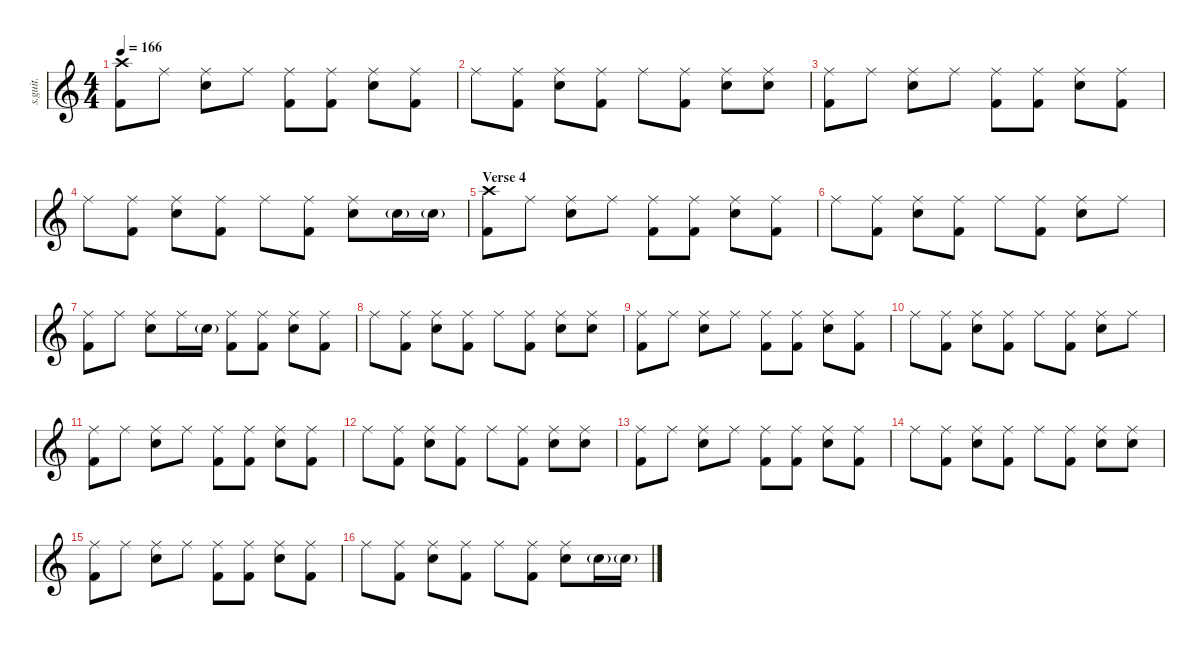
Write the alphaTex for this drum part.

\defaultSystemsLayout 4
\hideDynamics
\bracketExtendMode nobrackets
\track ("Phil Selway" "s.guit.") {instrument percussion}
\staff {score}
\articulation defaults
\ts (4 4)
\tempo 166
\clef g2
\ks c
("Crash high (hit)" "Kick (hit) 2").8{lyrics (0 "") lyrics (1 "") lyrics (2 "") lyrics (3 "") lyrics (4 "") dy f} "Ride (middle)".8{lyrics (0 "") lyrics (1 "") lyrics (2 "") lyrics (3 "") lyrics (4 "")} ("Ride (middle)" "Electric Snare (hit)").8{lyrics (0 "") lyrics (1 "") lyrics (2 "") lyrics (3 "") lyrics (4 "")} "Ride (middle)".8{lyrics (0 "") lyrics (1 "") lyrics (2 "") lyrics (3 "") lyrics (4 "")} ("Ride (middle)" "Kick (hit) 2").8{lyrics (0 "") lyrics (1 "") lyrics (2 "") lyrics (3 "") lyrics (4 "")} ("Ride (middle)" "Kick (hit) 2").8{lyrics (0 "") lyrics (1 "") lyrics (2 "") lyrics (3 "") lyrics (4 "")} ("Ride (middle)" "Electric Snare (hit)").8{lyrics (0 "") lyrics (1 "") lyrics (2 "") lyrics (3 "") lyrics (4 "")} ("Ride (middle)" "Kick (hit) 2").8{lyrics (0 "") lyrics (1 "") lyrics (2 "") lyrics (3 "") lyrics (4 "")} |
"Ride (middle)".8{lyrics (0 "") lyrics (1 "") lyrics (2 "") lyrics (3 "") lyrics (4 "")} ("Ride (middle)" "Kick (hit) 2").8{lyrics (0 "") lyrics (1 "") lyrics (2 "") lyrics (3 "") lyrics (4 "")} ("Ride (middle)" "Electric Snare (hit)").8{lyrics (0 "") lyrics (1 "") lyrics (2 "") lyrics (3 "") lyrics (4 "")} ("Ride (middle)" "Kick (hit) 2").8{lyrics (0 "") lyrics (1 "") lyrics (2 "") lyrics (3 "") lyrics (4 "")} "Ride (middle)".8{lyrics (0 "") lyrics (1 "") lyrics (2 "") lyrics (3 "") lyrics (4 "")} ("Ride (middle)" "Kick (hit) 2").8{lyrics (0 "") lyrics (1 "") lyrics (2 "") lyrics (3 "") lyrics (4 "")} ("Ride (middle)" "Electric Snare (hit)").8{lyrics (0 "") lyrics (1 "") lyrics (2 "") lyrics (3 "") lyrics (4 "")} ("Ride (middle)" "Electric Snare (hit)").8{lyrics (0 "") lyrics (1 "") lyrics (2 "") lyrics (3 "") lyrics (4 "")} |
("Ride (middle)" "Kick (hit) 2").8{lyrics (0 "") lyrics (1 "") lyrics (2 "") lyrics (3 "") lyrics (4 "")} "Ride (middle)".8{lyrics (0 "") lyrics (1 "") lyrics (2 "") lyrics (3 "") lyrics (4 "")} ("Ride (middle)" "Electric Snare (hit)").8{lyrics (0 "") lyrics (1 "") lyrics (2 "") lyrics (3 "") lyrics (4 "")} "Ride (middle)".8{lyrics (0 "") lyrics (1 "") lyrics (2 "") lyrics (3 "") lyrics (4 "")} ("Ride (middle)" "Kick (hit) 2").8{lyrics (0 "") lyrics (1 "") lyrics (2 "") lyrics (3 "") lyrics (4 "")} ("Ride (middle)" "Kick (hit) 2").8{lyrics (0 "") lyrics (1 "") lyrics (2 "") lyrics (3 "") lyrics (4 "")} ("Ride (middle)" "Electric Snare (hit)").8{lyrics (0 "") lyrics (1 "") lyrics (2 "") lyrics (3 "") lyrics (4 "")} ("Ride (middle)" "Kick (hit) 2").8{lyrics (0 "") lyrics (1 "") lyrics (2 "") lyrics (3 "") lyrics (4 "")} |
"Ride (middle)".8{lyrics (0 "") lyrics (1 "") lyrics (2 "") lyrics (3 "") lyrics (4 "")} ("Ride (middle)" "Kick (hit) 2").8{lyrics (0 "") lyrics (1 "") lyrics (2 "") lyrics (3 "") lyrics (4 "")} ("Ride (middle)" "Electric Snare (hit)").8{lyrics (0 "") lyrics (1 "") lyrics (2 "") lyrics (3 "") lyrics (4 "")} ("Ride (middle)" "Kick (hit) 2").8{lyrics (0 "") lyrics (1 "") lyrics (2 "") lyrics (3 "") lyrics (4 "")} "Ride (middle)".8{lyrics (0 "") lyrics (1 "") lyrics (2 "") lyrics (3 "") lyrics (4 "")} ("Ride (middle)" "Kick (hit) 2").8{lyrics (0 "") lyrics (1 "") lyrics (2 "") lyrics (3 "") lyrics (4 "")} ("Ride (middle)" "Electric Snare (hit)").8{lyrics (0 "") lyrics (1 "") lyrics (2 "") lyrics (3 "") lyrics (4 "")} "Electric Snare (hit)"{g}.16{lyrics (0 "") lyrics (1 "") lyrics (2 "") lyrics (3 "") lyrics (4 "")} "Electric Snare (hit)"{g}.16{lyrics (0 "") lyrics (1 "") lyrics (2 "") lyrics (3 "") lyrics (4 "")} |
\section ("" "Verse 4")
("Crash high (hit)" "Kick (hit) 2").8{lyrics (0 "") lyrics (1 "") lyrics (2 "") lyrics (3 "") lyrics (4 "")} "Ride (middle)".8{lyrics (0 "") lyrics (1 "") lyrics (2 "") lyrics (3 "") lyrics (4 "")} ("Ride (middle)" "Electric Snare (hit)").8{lyrics (0 "") lyrics (1 "") lyrics (2 "") lyrics (3 "") lyrics (4 "")} "Ride (middle)".8{lyrics (0 "") lyrics (1 "") lyrics (2 "") lyrics (3 "") lyrics (4 "")} ("Ride (middle)" "Kick (hit) 2").8{lyrics (0 "") lyrics (1 "") lyrics (2 "") lyrics (3 "") lyrics (4 "")} ("Ride (middle)" "Kick (hit) 2").8{lyrics (0 "") lyrics (1 "") lyrics (2 "") lyrics (3 "") lyrics (4 "")} ("Ride (middle)" "Electric Snare (hit)").8{lyrics (0 "") lyrics (1 "") lyrics (2 "") lyrics (3 "") lyrics (4 "")} ("Ride (middle)" "Kick (hit) 2").8{lyrics (0 "") lyrics (1 "") lyrics (2 "") lyrics (3 "") lyrics (4 "")} |
"Ride (middle)".8{lyrics (0 "") lyrics (1 "") lyrics (2 "") lyrics (3 "") lyrics (4 "")} ("Ride (middle)" "Kick (hit) 2").8{lyrics (0 "") lyrics (1 "") lyrics (2 "") lyrics (3 "") lyrics (4 "")} ("Ride (middle)" "Electric Snare (hit)").8{lyrics (0 "") lyrics (1 "") lyrics (2 "") lyrics (3 "") lyrics (4 "")} ("Ride (middle)" "Kick (hit) 2").8{lyrics (0 "") lyrics (1 "") lyrics (2 "") lyrics (3 "") lyrics (4 "")} "Ride (middle)".8{lyrics (0 "") lyrics (1 "") lyrics (2 "") lyrics (3 "") lyrics (4 "")} ("Ride (middle)" "Kick (hit) 2").8{lyrics (0 "") lyrics (1 "") lyrics (2 "") lyrics (3 "") lyrics (4 "")} ("Ride (middle)" "Electric Snare (hit)").8{lyrics (0 "") lyrics (1 "") lyrics (2 "") lyrics (3 "") lyrics (4 "")} "Ride (middle)".8{lyrics (0 "") lyrics (1 "") lyrics (2 "") lyrics (3 "") lyrics (4 "")} |
("Ride (middle)" "Kick (hit) 2").8{lyrics (0 "") lyrics (1 "") lyrics (2 "") lyrics (3 "") lyrics (4 "")} "Ride (middle)".8{lyrics (0 "") lyrics (1 "") lyrics (2 "") lyrics (3 "") lyrics (4 "")} ("Ride (middle)" "Electric Snare (hit)").8{lyrics (0 "") lyrics (1 "") lyrics (2 "") lyrics (3 "") lyrics (4 "")} "Ride (middle)".16{lyrics (0 "") lyrics (1 "") lyrics (2 "") lyrics (3 "") lyrics (4 "")} "Snare (hit) 2"{g}.16{lyrics (0 "") lyrics (1 "") lyrics (2 "") lyrics (3 "") lyrics (4 "")} ("Ride (middle)" "Kick (hit) 2").8{lyrics (0 "") lyrics (1 "") lyrics (2 "") lyrics (3 "") lyrics (4 "")} ("Ride (middle)" "Kick (hit) 2").8{lyrics (0 "") lyrics (1 "") lyrics (2 "") lyrics (3 "") lyrics (4 "")} ("Ride (middle)" "Electric Snare (hit)").8{lyrics (0 "") lyrics (1 "") lyrics (2 "") lyrics (3 "") lyrics (4 "")} ("Ride (middle)" "Kick (hit) 2").8{lyrics (0 "") lyrics (1 "") lyrics (2 "") lyrics (3 "") lyrics (4 "")} |
"Ride (middle)".8{lyrics (0 "") lyrics (1 "") lyrics (2 "") lyrics (3 "") lyrics (4 "")} ("Ride (middle)" "Kick (hit) 2").8{lyrics (0 "") lyrics (1 "") lyrics (2 "") lyrics (3 "") lyrics (4 "")} ("Ride (middle)" "Electric Snare (hit)").8{lyrics (0 "") lyrics (1 "") lyrics (2 "") lyrics (3 "") lyrics (4 "")} ("Ride (middle)" "Kick (hit) 2").8{lyrics (0 "") lyrics (1 "") lyrics (2 "") lyrics (3 "") lyrics (4 "")} "Ride (middle)".8{lyrics (0 "") lyrics (1 "") lyrics (2 "") lyrics (3 "") lyrics (4 "")} ("Ride (middle)" "Kick (hit) 2").8{lyrics (0 "") lyrics (1 "") lyrics (2 "") lyrics (3 "") lyrics (4 "")} ("Ride (middle)" "Electric Snare (hit)").8{lyrics (0 "") lyrics (1 "") lyrics (2 "") lyrics (3 "") lyrics (4 "")} ("Ride (middle)" "Electric Snare (hit)").8{lyrics (0 "") lyrics (1 "") lyrics (2 "") lyrics (3 "") lyrics (4 "")} |
("Ride (middle)" "Kick (hit) 2").8{lyrics (0 "") lyrics (1 "") lyrics (2 "") lyrics (3 "") lyrics (4 "")} "Ride (middle)".8{lyrics (0 "") lyrics (1 "") lyrics (2 "") lyrics (3 "") lyrics (4 "")} ("Ride (middle)" "Electric Snare (hit)").8{lyrics (0 "") lyrics (1 "") lyrics (2 "") lyrics (3 "") lyrics (4 "")} "Ride (middle)".8{lyrics (0 "") lyrics (1 "") lyrics (2 "") lyrics (3 "") lyrics (4 "")} ("Ride (middle)" "Kick (hit) 2").8{lyrics (0 "") lyrics (1 "") lyrics (2 "") lyrics (3 "") lyrics (4 "")} ("Ride (middle)" "Kick (hit) 2").8{lyrics (0 "") lyrics (1 "") lyrics (2 "") lyrics (3 "") lyrics (4 "")} ("Ride (middle)" "Electric Snare (hit)").8{lyrics (0 "") lyrics (1 "") lyrics (2 "") lyrics (3 "") lyrics (4 "")} ("Ride (middle)" "Kick (hit) 2").8{lyrics (0 "") lyrics (1 "") lyrics (2 "") lyrics (3 "") lyrics (4 "")} |
"Ride (middle)".8{lyrics (0 "") lyrics (1 "") lyrics (2 "") lyrics (3 "") lyrics (4 "")} ("Ride (middle)" "Kick (hit) 2").8{lyrics (0 "") lyrics (1 "") lyrics (2 "") lyrics (3 "") lyrics (4 "")} ("Ride (middle)" "Electric Snare (hit)").8{lyrics (0 "") lyrics (1 "") lyrics (2 "") lyrics (3 "") lyrics (4 "")} ("Ride (middle)" "Kick (hit) 2").8{lyrics (0 "") lyrics (1 "") lyrics (2 "") lyrics (3 "") lyrics (4 "")} "Ride (middle)".8{lyrics (0 "") lyrics (1 "") lyrics (2 "") lyrics (3 "") lyrics (4 "")} ("Ride (middle)" "Kick (hit) 2").8{lyrics (0 "") lyrics (1 "") lyrics (2 "") lyrics (3 "") lyrics (4 "")} ("Ride (middle)" "Electric Snare (hit)").8{lyrics (0 "") lyrics (1 "") lyrics (2 "") lyrics (3 "") lyrics (4 "")} "Ride (middle)".8{lyrics (0 "") lyrics (1 "") lyrics (2 "") lyrics (3 "") lyrics (4 "")} |
("Ride (middle)" "Kick (hit) 2").8{lyrics (0 "") lyrics (1 "") lyrics (2 "") lyrics (3 "") lyrics (4 "")} "Ride (middle)".8{lyrics (0 "") lyrics (1 "") lyrics (2 "") lyrics (3 "") lyrics (4 "")} ("Ride (middle)" "Electric Snare (hit)").8{lyrics (0 "") lyrics (1 "") lyrics (2 "") lyrics (3 "") lyrics (4 "")} "Ride (middle)".8{lyrics (0 "") lyrics (1 "") lyrics (2 "") lyrics (3 "") lyrics (4 "")} ("Ride (middle)" "Kick (hit) 2").8{lyrics (0 "") lyrics (1 "") lyrics (2 "") lyrics (3 "") lyrics (4 "")} ("Ride (middle)" "Kick (hit) 2").8{lyrics (0 "") lyrics (1 "") lyrics (2 "") lyrics (3 "") lyrics (4 "")} ("Ride (middle)" "Electric Snare (hit)").8{lyrics (0 "") lyrics (1 "") lyrics (2 "") lyrics (3 "") lyrics (4 "")} ("Ride (middle)" "Kick (hit) 2").8{lyrics (0 "") lyrics (1 "") lyrics (2 "") lyrics (3 "") lyrics (4 "")} |
"Ride (middle)".8{lyrics (0 "") lyrics (1 "") lyrics (2 "") lyrics (3 "") lyrics (4 "")} ("Ride (middle)" "Kick (hit) 2").8{lyrics (0 "") lyrics (1 "") lyrics (2 "") lyrics (3 "") lyrics (4 "")} ("Ride (middle)" "Electric Snare (hit)").8{lyrics (0 "") lyrics (1 "") lyrics (2 "") lyrics (3 "") lyrics (4 "")} ("Ride (middle)" "Kick (hit) 2").8{lyrics (0 "") lyrics (1 "") lyrics (2 "") lyrics (3 "") lyrics (4 "")} "Ride (middle)".8{lyrics (0 "") lyrics (1 "") lyrics (2 "") lyrics (3 "") lyrics (4 "")} ("Ride (middle)" "Kick (hit) 2").8{lyrics (0 "") lyrics (1 "") lyrics (2 "") lyrics (3 "") lyrics (4 "")} ("Ride (middle)" "Electric Snare (hit)").8{lyrics (0 "") lyrics (1 "") lyrics (2 "") lyrics (3 "") lyrics (4 "")} ("Ride (middle)" "Electric Snare (hit)").8{lyrics (0 "") lyrics (1 "") lyrics (2 "") lyrics (3 "") lyrics (4 "")} |
("Ride (middle)" "Kick (hit) 2").8{lyrics (0 "") lyrics (1 "") lyrics (2 "") lyrics (3 "") lyrics (4 "")} "Ride (middle)".8{lyrics (0 "") lyrics (1 "") lyrics (2 "") lyrics (3 "") lyrics (4 "")} ("Ride (middle)" "Electric Snare (hit)").8{lyrics (0 "") lyrics (1 "") lyrics (2 "") lyrics (3 "") lyrics (4 "")} "Ride (middle)".8{lyrics (0 "") lyrics (1 "") lyrics (2 "") lyrics (3 "") lyrics (4 "")} ("Ride (middle)" "Kick (hit) 2").8{lyrics (0 "") lyrics (1 "") lyrics (2 "") lyrics (3 "") lyrics (4 "")} ("Ride (middle)" "Kick (hit) 2").8{lyrics (0 "") lyrics (1 "") lyrics (2 "") lyrics (3 "") lyrics (4 "")} ("Ride (middle)" "Electric Snare (hit)").8{lyrics (0 "") lyrics (1 "") lyrics (2 "") lyrics (3 "") lyrics (4 "")} ("Ride (middle)" "Kick (hit) 2").8{lyrics (0 "") lyrics (1 "") lyrics (2 "") lyrics (3 "") lyrics (4 "")} |
"Ride (middle)".8{lyrics (0 "") lyrics (1 "") lyrics (2 "") lyrics (3 "") lyrics (4 "")} ("Ride (middle)" "Kick (hit) 2").8{lyrics (0 "") lyrics (1 "") lyrics (2 "") lyrics (3 "") lyrics (4 "")} ("Ride (middle)" "Electric Snare (hit)").8{lyrics (0 "") lyrics (1 "") lyrics (2 "") lyrics (3 "") lyrics (4 "")} ("Ride (middle)" "Kick (hit) 2").8{lyrics (0 "") lyrics (1 "") lyrics (2 "") lyrics (3 "") lyrics (4 "")} "Ride (middle)".8{lyrics (0 "") lyrics (1 "") lyrics (2 "") lyrics (3 "") lyrics (4 "")} ("Ride (middle)" "Kick (hit) 2").8{lyrics (0 "") lyrics (1 "") lyrics (2 "") lyrics (3 "") lyrics (4 "")} ("Ride (middle)" "Electric Snare (hit)").8{lyrics (0 "") lyrics (1 "") lyrics (2 "") lyrics (3 "") lyrics (4 "")} ("Ride (middle)" "Electric Snare (hit)").8{lyrics (0 "") lyrics (1 "") lyrics (2 "") lyrics (3 "") lyrics (4 "")} |
("Ride (middle)" "Kick (hit) 2").8{lyrics (0 "") lyrics (1 "") lyrics (2 "") lyrics (3 "") lyrics (4 "")} "Ride (middle)".8{lyrics (0 "") lyrics (1 "") lyrics (2 "") lyrics (3 "") lyrics (4 "")} ("Ride (middle)" "Electric Snare (hit)").8{lyrics (0 "") lyrics (1 "") lyrics (2 "") lyrics (3 "") lyrics (4 "")} "Ride (middle)".8{lyrics (0 "") lyrics (1 "") lyrics (2 "") lyrics (3 "") lyrics (4 "")} ("Ride (middle)" "Kick (hit) 2").8{lyrics (0 "") lyrics (1 "") lyrics (2 "") lyrics (3 "") lyrics (4 "")} ("Ride (middle)" "Kick (hit) 2").8{lyrics (0 "") lyrics (1 "") lyrics (2 "") lyrics (3 "") lyrics (4 "")} ("Ride (middle)" "Electric Snare (hit)").8{lyrics (0 "") lyrics (1 "") lyrics (2 "") lyrics (3 "") lyrics (4 "")} ("Ride (middle)" "Kick (hit) 2").8{lyrics (0 "") lyrics (1 "") lyrics (2 "") lyrics (3 "") lyrics (4 "")} |
"Ride (middle)".8{lyrics (0 "") lyrics (1 "") lyrics (2 "") lyrics (3 "") lyrics (4 "")} ("Ride (middle)" "Kick (hit) 2").8{lyrics (0 "") lyrics (1 "") lyrics (2 "") lyrics (3 "") lyrics (4 "")} ("Ride (middle)" "Electric Snare (hit)").8{lyrics (0 "") lyrics (1 "") lyrics (2 "") lyrics (3 "") lyrics (4 "")} ("Ride (middle)" "Kick (hit) 2").8{lyrics (0 "") lyrics (1 "") lyrics (2 "") lyrics (3 "") lyrics (4 "")} "Ride (middle)".8{lyrics (0 "") lyrics (1 "") lyrics (2 "") lyrics (3 "") lyrics (4 "")} ("Ride (middle)" "Kick (hit) 2").8{lyrics (0 "") lyrics (1 "") lyrics (2 "") lyrics (3 "") lyrics (4 "")} ("Ride (middle)" "Electric Snare (hit)").8{lyrics (0 "") lyrics (1 "") lyrics (2 "") lyrics (3 "") lyrics (4 "")} "Electric Snare (hit)"{g}.16{lyrics (0 "") lyrics (1 "") lyrics (2 "") lyrics (3 "") lyrics (4 "")} "Electric Snare (hit)"{g}.16{lyrics (0 "") lyrics (1 "") lyrics (2 "") lyrics (3 "") lyrics (4 "")}
